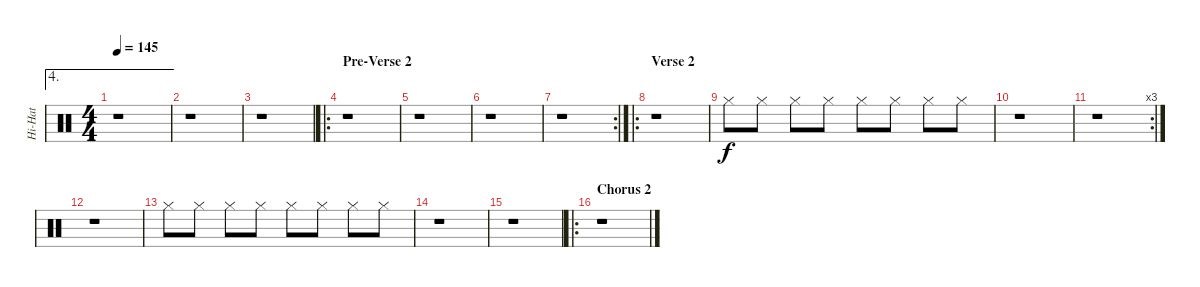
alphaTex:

\track ("Hi-Hat" "Hi-Hat") {instrument percussion}
\staff {score}
\articulation defaults
\ae 4
\ts (4 4)
\tempo 145
\clef neutral
\ks c
r.1{dy f} |
r.1 |
r.1 |
\ro
\section ("" "Pre-Verse 2")
r.1 |
r.1 |
r.1 |
\rc 2
r.1 |
\ro
\section ("" "Verse 2")
r.1 |
"Hi-Hat (closed)".8 "Hi-Hat (closed)".8 "Hi-Hat (closed)".8 "Hi-Hat (closed)".8 "Hi-Hat (closed)".8 "Hi-Hat (closed)".8 "Hi-Hat (closed)".8 "Hi-Hat (closed)".8 |
r.1 |
\rc 3
r.1 |
r.1 |
"Hi-Hat (closed)".8 "Hi-Hat (closed)".8 "Hi-Hat (closed)".8 "Hi-Hat (closed)".8 "Hi-Hat (closed)".8 "Hi-Hat (closed)".8 "Hi-Hat (closed)".8 "Hi-Hat (closed)".8 |
r.1 |
r.1 |
\ro
\section ("" "Chorus 2")
r.1
